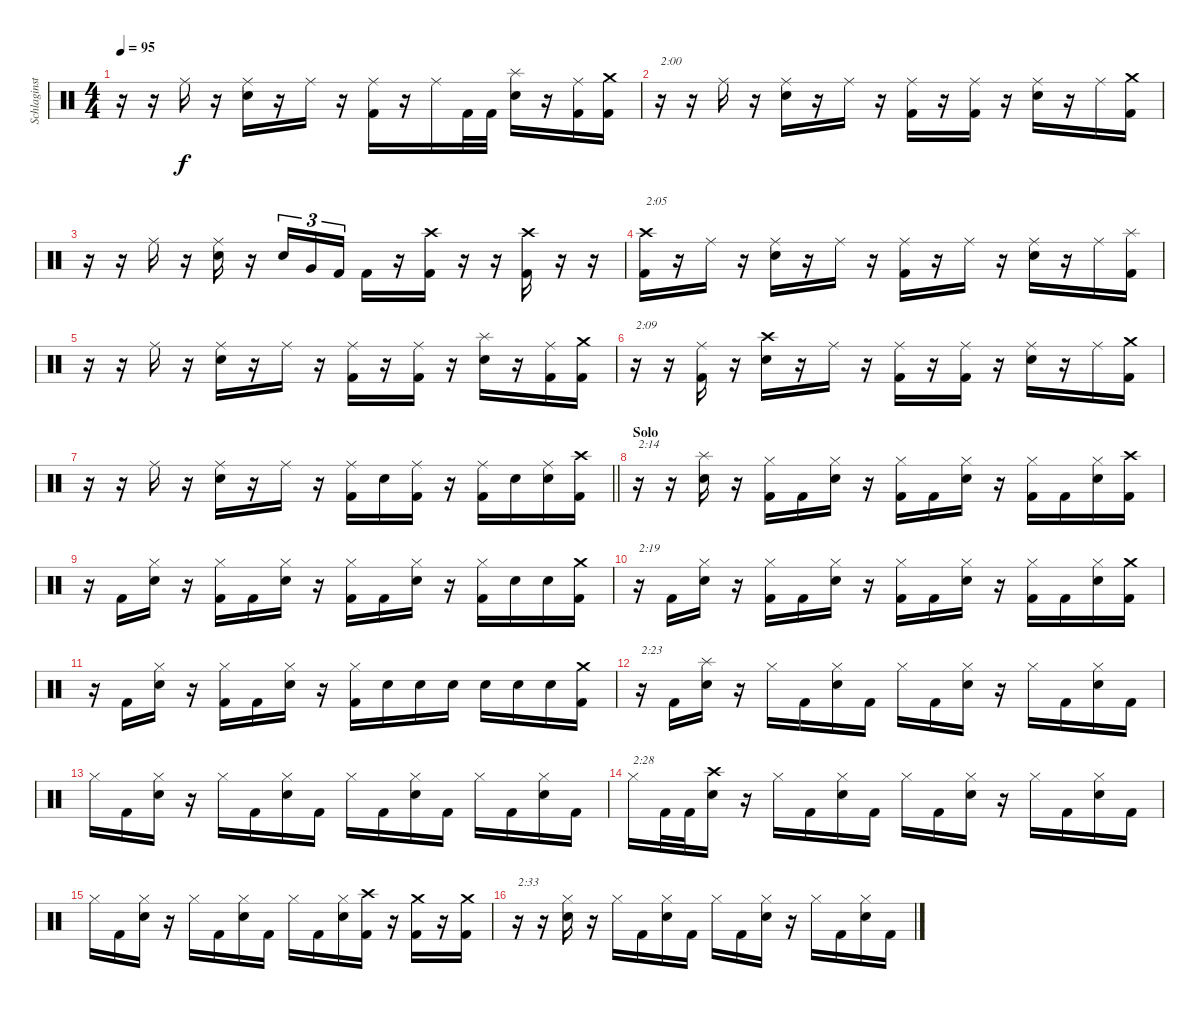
\track ("Schlaginstrumente - Auswahl" "Schlaginst") {instrument percussion}
\staff {score}
\articulation defaults
\ts (4 4)
\tempo 95
\clef neutral
\ks c
r.16{dy f} r.16 "Ride (middle)".16 r.16 ("Ride (middle)" "Electric Snare (hit)").16 r.16 "Ride (middle)".16 r.16 ("Ride (middle)" "Kick (hit) 2").16 r.16 "Ride (middle)".16 "Kick (hit) 2".32 "Kick (hit) 2".32 ("Splash (hit)" "Electric Snare (hit)").16 r.16 ("Ride (middle)" "Kick (hit) 2").16 ("Crash medium (hit)" "Kick (hit) 2").16 |
r.16{txt "2:00"} r.16 "Ride (middle)".16 r.16 ("Ride (middle)" "Electric Snare (hit)").16 r.16 "Ride (middle)".16 r.16 ("Ride (middle)" "Kick (hit) 2").16 r.16 ("Ride (middle)" "Kick (hit) 2").16 r.16 ("Ride (middle)" "Electric Snare (hit)").16 r.16 "Ride (middle)".16 ("Crash medium (hit)" "Kick (hit) 2").16 |
r.16 r.16 "Ride (middle)".16 r.16 ("Ride (middle)" "Electric Snare (hit)").16 r.16 "Electric Snare (hit)".16{tu (3 2)} "Very Low Tom (hit)".16{tu (3 2)} "Kick (hit) 2".16{tu (3 2)} "Kick (hit) 2".16 r.16 ("Crash high (hit)" "Kick (hit) 2").16 r.16 r.16 ("Crash high (hit)" "Kick (hit) 2").16 r.16 r.16 |
("Crash high (hit)" "Kick (hit) 2").16{txt "2:05"} r.16 "Ride (middle)".16 r.16 ("Ride (middle)" "Electric Snare (hit)").16 r.16 "Ride (middle)".16 r.16 ("Ride (middle)" "Kick (hit) 2").16 r.16 "Ride (middle)".16 r.16 ("Ride (middle)" "Electric Snare (hit)").16 r.16 "Ride (middle)".16 ("Splash (hit)" "Kick (hit) 2").16 |
r.16 r.16 "Ride (middle)".16 r.16 ("Ride (middle)" "Electric Snare (hit)").16 r.16 "Ride (middle)".16 r.16 ("Ride (middle)" "Kick (hit) 2").16 r.16 ("Ride (middle)" "Kick (hit) 2").16 r.16 ("Splash (hit)" "Electric Snare (hit)").16 r.16 ("Ride (middle)" "Kick (hit) 2").16 ("Crash medium (hit)" "Kick (hit) 2").16 |
r.16{txt "2:09"} r.16 ("Ride (middle)" "Kick (hit) 2").16 r.16 ("Crash high (hit)" "Electric Snare (hit)").16 r.16 "Ride (middle)".16 r.16 ("Ride (middle)" "Kick (hit) 2").16 r.16 ("Ride (middle)" "Kick (hit) 2").16 r.16 ("Ride (middle)" "Electric Snare (hit)").16 r.16 "Ride (middle)".16 ("Crash medium (hit)" "Kick (hit) 2").16 |
\barLineRight lightlight
r.16 r.16 "Ride (middle)".16 r.16 ("Ride (middle)" "Electric Snare (hit)").16 r.16 "Ride (middle)".16 r.16 ("Ride (middle)" "Kick (hit) 2").16 "Electric Snare (hit)".16 ("Ride (middle)" "Kick (hit) 2").16 r.16 ("Ride (middle)" "Kick (hit) 2").16 "Electric Snare (hit)".16 ("Ride (middle)" "Electric Snare (hit)").16 ("Crash high (hit)" "Kick (hit) 2").16 |
\section ("" "Solo")
r.16{txt "2:14"} r.16 ("Splash (hit)" "Electric Snare (hit)").16 r.16 ("Hi-Hat (closed)" "Kick (hit) 2").16 "Kick (hit) 2".16 ("Hi-Hat (closed)" "Electric Snare (hit)").16 r.16 ("Hi-Hat (closed)" "Kick (hit) 2").16 "Kick (hit) 2".16 ("Hi-Hat (closed)" "Electric Snare (hit)").16 r.16 ("Hi-Hat (closed)" "Kick (hit) 2").16 "Kick (hit) 2".16 ("Hi-Hat (closed)" "Electric Snare (hit)").16 ("Crash high (hit)" "Kick (hit) 2").16 |
r.16 "Kick (hit) 2".16 ("Hi-Hat (closed)" "Electric Snare (hit)").16 r.16 ("Hi-Hat (closed)" "Kick (hit) 2").16 "Kick (hit) 2".16 ("Hi-Hat (closed)" "Electric Snare (hit)").16 r.16 ("Hi-Hat (closed)" "Kick (hit) 2").16 "Kick (hit) 2".16 ("Hi-Hat (closed)" "Electric Snare (hit)").16 r.16 ("Hi-Hat (closed)" "Kick (hit) 2").16 "Electric Snare (hit)".16 "Electric Snare (hit)".16 ("Crash medium (hit)" "Kick (hit) 2").16 |
r.16{txt "2:19"} "Kick (hit) 2".16 ("Hi-Hat (closed)" "Electric Snare (hit)").16 r.16 ("Hi-Hat (closed)" "Kick (hit) 2").16 "Kick (hit) 2".16 ("Hi-Hat (closed)" "Electric Snare (hit)").16 r.16 ("Hi-Hat (closed)" "Kick (hit) 2").16 "Kick (hit) 2".16 ("Hi-Hat (closed)" "Electric Snare (hit)").16 r.16 ("Hi-Hat (closed)" "Kick (hit) 2").16 "Kick (hit) 2".16 ("Hi-Hat (closed)" "Electric Snare (hit)").16 ("Crash medium (hit)" "Kick (hit) 2").16 |
r.16 "Kick (hit) 2".16 ("Hi-Hat (closed)" "Electric Snare (hit)").16 r.16 ("Hi-Hat (closed)" "Kick (hit) 2").16 "Kick (hit) 2".16 ("Hi-Hat (closed)" "Electric Snare (hit)").16 r.16 ("Hi-Hat (closed)" "Kick (hit) 2").16 "Electric Snare (hit)".16 "Electric Snare (hit)".16 "Electric Snare (hit)".16 "Electric Snare (hit)".16 "Electric Snare (hit)".16 "Electric Snare (hit)".16 ("Crash medium (hit)" "Kick (hit) 2").16 |
r.16{txt "2:23"} "Kick (hit) 2".16 ("Splash (hit)" "Electric Snare (hit)").16 r.16 "Hi-Hat (closed)".16 "Kick (hit) 2".16 ("Hi-Hat (closed)" "Electric Snare (hit)").16 "Kick (hit) 2".16 "Hi-Hat (closed)".16 "Kick (hit) 2".16 ("Hi-Hat (closed)" "Electric Snare (hit)").16 r.16 "Hi-Hat (closed)".16 "Kick (hit) 2".16 ("Hi-Hat (closed)" "Electric Snare (hit)").16 "Kick (hit) 2".16 |
"Hi-Hat (closed)".16 "Kick (hit) 2".16 ("Hi-Hat (closed)" "Electric Snare (hit)").16 r.16 "Hi-Hat (closed)".16 "Kick (hit) 2".16 ("Hi-Hat (closed)" "Electric Snare (hit)").16 "Kick (hit) 2".16 "Hi-Hat (closed)".16 "Kick (hit) 2".16 ("Hi-Hat (closed)" "Electric Snare (hit)").16 "Kick (hit) 2".16 "Hi-Hat (closed)".16 "Kick (hit) 2".16 ("Hi-Hat (closed)" "Electric Snare (hit)").16 "Kick (hit) 2".16 |
"Hi-Hat (closed)".16{txt "2:28"} "Kick (hit) 2".32 "Kick (hit) 2".32 ("Crash high (hit)" "Electric Snare (hit)").16 r.16 "Hi-Hat (closed)".16 "Kick (hit) 2".16 ("Hi-Hat (closed)" "Electric Snare (hit)").16 "Kick (hit) 2".16 "Hi-Hat (closed)".16 "Kick (hit) 2".16 ("Hi-Hat (closed)" "Electric Snare (hit)").16 r.16 "Hi-Hat (closed)".16 "Kick (hit) 2".16 ("Hi-Hat (closed)" "Electric Snare (hit)").16 "Kick (hit) 2".16 |
"Hi-Hat (closed)".16 "Kick (hit) 2".16 ("Hi-Hat (closed)" "Electric Snare (hit)").16 r.16 "Hi-Hat (closed)".16 "Kick (hit) 2".16 ("Hi-Hat (closed)" "Electric Snare (hit)").16 "Kick (hit) 2".16 "Hi-Hat (closed)".16 "Kick (hit) 2".16 ("Hi-Hat (closed)" "Electric Snare (hit)").16 ("Crash high (hit)" "Kick (hit) 2").16 r.16 ("Crash medium (hit)" "Kick (hit) 2").16 r.16 ("Crash medium (hit)" "Kick (hit) 2").16 |
r.16{txt "2:33"} r.16 ("Hi-Hat (closed)" "Electric Snare (hit)").16 r.16 "Hi-Hat (closed)".16 "Kick (hit) 2".16 ("Hi-Hat (closed)" "Electric Snare (hit)").16 "Kick (hit) 2".16 "Hi-Hat (closed)".16 "Kick (hit) 2".16 ("Hi-Hat (closed)" "Electric Snare (hit)").16 r.16 "Hi-Hat (closed)".16 "Kick (hit) 2".16 ("Hi-Hat (closed)" "Electric Snare (hit)").16 "Kick (hit) 2".16
